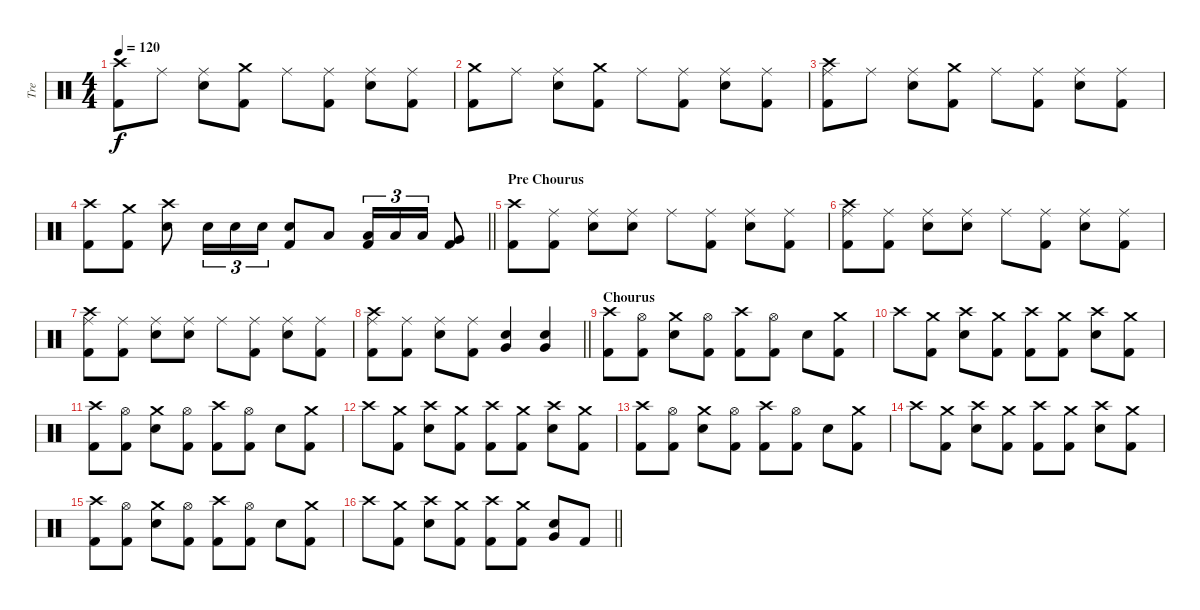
\track ("Tre" "Tre") {instrument percussion}
\staff {score}
\articulation defaults
\ts (4 4)
\tempo 120
\clef neutral
\ks c
("Crash high (hit)" "Kick (hit) 2").8{dy f} "Ride (middle)".8 ("Ride (middle)" "Snare (hit) 2").8 ("Crash medium (hit)" "Kick (hit) 2").8 "Ride (middle)".8 ("Ride (middle)" "Kick (hit) 2").8 ("Ride (middle)" "Snare (hit) 2").8 ("Ride (middle)" "Kick (hit) 2").8 |
("Crash medium (hit)" "Kick (hit) 2").8 "Ride (middle)".8 ("Ride (middle)" "Snare (hit) 2").8 ("Crash medium (hit)" "Kick (hit) 2").8 "Ride (middle)".8 ("Ride (middle)" "Kick (hit) 2").8 ("Ride (middle)" "Snare (hit) 2").8 ("Ride (middle)" "Kick (hit) 2").8 |
("Crash high (hit)" "Ride (middle)" "Kick (hit) 2").8 "Ride (middle)".8 ("Ride (middle)" "Snare (hit) 2").8 ("Crash medium (hit)" "Kick (hit) 2").8 "Ride (middle)".8 ("Ride (middle)" "Kick (hit) 2").8 ("Ride (middle)" "Snare (hit) 2").8 ("Ride (middle)" "Kick (hit) 2").8 |
\barLineRight lightlight
("Crash high (hit)" "Kick (hit) 2").8 ("Crash medium (hit)" "Kick (hit) 2").8 ("Crash high (hit)" "Snare (hit) 2").8 "Snare (hit) 2".16{tu (3 2)} "Snare (hit) 2".16{tu (3 2)} "Snare (hit) 2".16{tu (3 2)} ("Snare (hit) 2" "Kick (hit) 2").8 "Low Tom (hit)".8 ("Low Tom (hit)" "Kick (hit) 2").16{tu (3 2)} "Low Tom (hit)".16{tu (3 2)} "Low Tom (hit)".16{tu (3 2)} ("Very Low Tom (hit)" "Kick (hit) 2").8 |
\section ("" "Pre Chourus")
("Crash high (hit)" "Kick (hit) 2").8 ("Ride (middle)" "Kick (hit) 2").8 ("Ride (middle)" "Snare (hit) 2").8 ("Ride (middle)" "Snare (hit) 2").8 "Ride (middle)".8 ("Ride (middle)" "Kick (hit) 2").8 ("Ride (middle)" "Snare (hit) 2").8 ("Ride (middle)" "Kick (hit) 2").8 |
("Crash high (hit)" "Ride (middle)" "Kick (hit) 2").8 ("Ride (middle)" "Kick (hit) 2").8 ("Ride (middle)" "Snare (hit) 2").8 ("Ride (middle)" "Snare (hit) 2").8 "Ride (middle)".8 ("Ride (middle)" "Kick (hit) 2").8 ("Ride (middle)" "Snare (hit) 2").8 ("Ride (middle)" "Kick (hit) 2").8 |
("Crash high (hit)" "Ride (middle)" "Kick (hit) 2").8 ("Ride (middle)" "Kick (hit) 2").8 ("Ride (middle)" "Snare (hit) 2").8 ("Ride (middle)" "Snare (hit) 2").8 "Ride (middle)".8 ("Ride (middle)" "Kick (hit) 2").8 ("Ride (middle)" "Snare (hit) 2").8 ("Ride (middle)" "Kick (hit) 2").8 |
\barLineRight lightlight
("Crash high (hit)" "Ride (middle)" "Kick (hit) 2").8 ("Ride (middle)" "Kick (hit) 2").8 ("Ride (middle)" "Snare (hit) 2").8 ("Ride (middle)" "Kick (hit) 2").8 ("Snare (hit) 2" "Very Low Tom (hit)").4 ("Snare (hit) 2" "Very Low Tom (hit)").4 |
\section ("" "Chourus")
("Crash high (hit)" "Kick (hit) 2").8 ("Hi-Hat (open)" "Kick (hit) 2").8 ("Crash medium (hit)" "Snare (hit) 2").8 ("Hi-Hat (open)" "Kick (hit) 2").8 ("Crash high (hit)" "Kick (hit) 2").8 ("Hi-Hat (open)" "Kick (hit) 2").8 "Snare (hit) 2".8 ("Crash medium (hit)" "Kick (hit) 2").8 |
"Crash high (hit)".8 ("Crash medium (hit)" "Kick (hit) 2").8 ("Crash high (hit)" "Snare (hit) 2").8 ("Crash medium (hit)" "Kick (hit) 2").8 ("Crash high (hit)" "Kick (hit) 2").8 ("Crash medium (hit)" "Kick (hit) 2").8 ("Crash high (hit)" "Snare (hit) 2").8 ("Crash medium (hit)" "Kick (hit) 2").8 |
("Crash high (hit)" "Kick (hit) 2").8 ("Hi-Hat (open)" "Kick (hit) 2").8 ("Crash medium (hit)" "Snare (hit) 2").8 ("Hi-Hat (open)" "Kick (hit) 2").8 ("Crash high (hit)" "Kick (hit) 2").8 ("Hi-Hat (open)" "Kick (hit) 2").8 "Snare (hit) 2".8 ("Crash medium (hit)" "Kick (hit) 2").8 |
"Crash high (hit)".8 ("Crash medium (hit)" "Kick (hit) 2").8 ("Crash high (hit)" "Snare (hit) 2").8 ("Crash medium (hit)" "Kick (hit) 2").8 ("Crash high (hit)" "Kick (hit) 2").8 ("Crash medium (hit)" "Kick (hit) 2").8 ("Crash high (hit)" "Snare (hit) 2").8 ("Crash medium (hit)" "Kick (hit) 2").8 |
("Crash high (hit)" "Kick (hit) 2").8 ("Hi-Hat (open)" "Kick (hit) 2").8 ("Crash medium (hit)" "Snare (hit) 2").8 ("Hi-Hat (open)" "Kick (hit) 2").8 ("Crash high (hit)" "Kick (hit) 2").8 ("Hi-Hat (open)" "Kick (hit) 2").8 "Snare (hit) 2".8 ("Crash medium (hit)" "Kick (hit) 2").8 |
"Crash high (hit)".8 ("Crash medium (hit)" "Kick (hit) 2").8 ("Crash high (hit)" "Snare (hit) 2").8 ("Crash medium (hit)" "Kick (hit) 2").8 ("Crash high (hit)" "Kick (hit) 2").8 ("Crash medium (hit)" "Kick (hit) 2").8 ("Crash high (hit)" "Snare (hit) 2").8 ("Crash medium (hit)" "Kick (hit) 2").8 |
("Crash high (hit)" "Kick (hit) 2").8 ("Hi-Hat (open)" "Kick (hit) 2").8 ("Crash medium (hit)" "Snare (hit) 2").8 ("Hi-Hat (open)" "Kick (hit) 2").8 ("Crash high (hit)" "Kick (hit) 2").8 ("Hi-Hat (open)" "Kick (hit) 2").8 "Snare (hit) 2".8 ("Crash medium (hit)" "Kick (hit) 2").8 |
\barLineRight lightlight "Crash high (hit)".8
("Crash medium (hit)" "Kick (hit) 2").8 ("Crash high (hit)" "Snare (hit) 2").8 ("Crash medium (hit)" "Kick (hit) 2").8 ("Crash high (hit)" "Kick (hit) 2").8 ("Crash medium (hit)" "Kick (hit) 2").8 ("Snare (hit) 2" "Very Low Tom (hit)").8 "Kick (hit) 2".8
